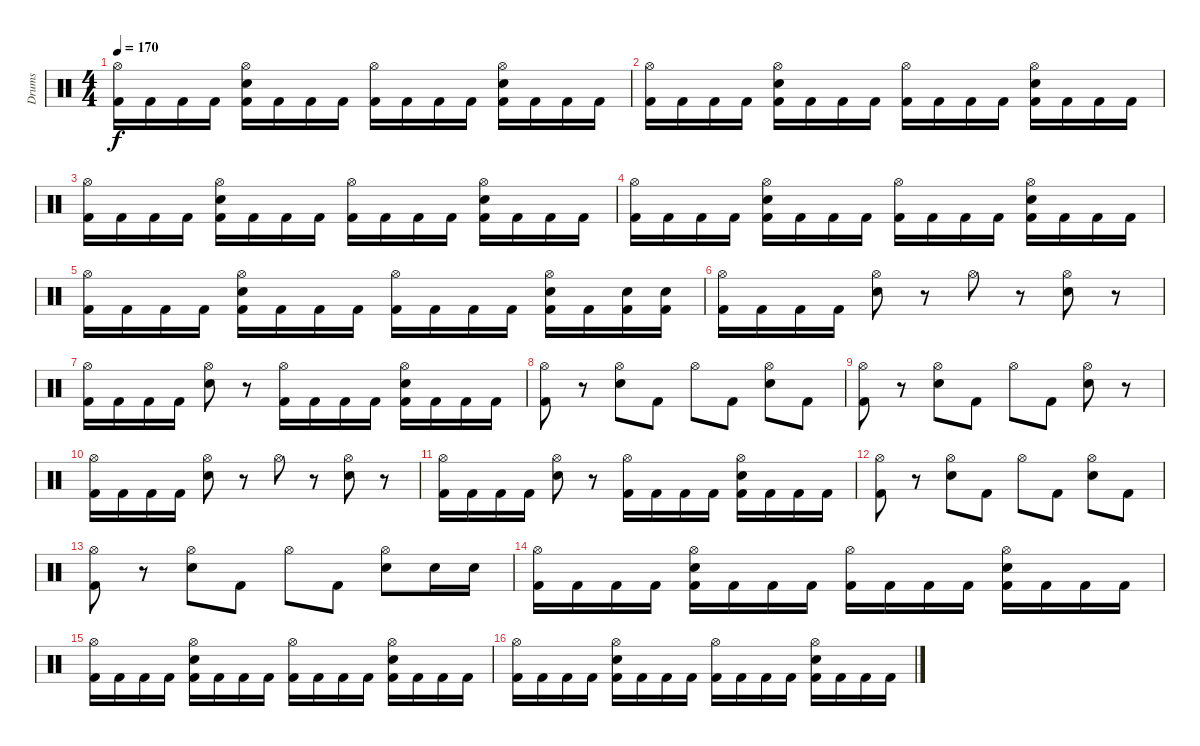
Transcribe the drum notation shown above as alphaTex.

\track ("Drums" "Drums") {instrument percussion}
\staff {score}
\articulation defaults
\ts (4 4)
\tempo 170
\clef neutral
\ks c
("Hi-Hat (open)" "Kick (hit) 2").16{dy f} "Kick (hit) 2".16 "Kick (hit) 2".16 "Kick (hit) 2".16 ("Hi-Hat (open)" "Electric Snare (hit)" "Kick (hit) 2").16 "Kick (hit) 2".16 "Kick (hit) 2".16 "Kick (hit) 2".16 ("Hi-Hat (open)" "Kick (hit) 2").16 "Kick (hit) 2".16 "Kick (hit) 2".16 "Kick (hit) 2".16 ("Hi-Hat (open)" "Electric Snare (hit)" "Kick (hit) 2").16 "Kick (hit) 2".16 "Kick (hit) 2".16 "Kick (hit) 2".16 |
("Hi-Hat (open)" "Kick (hit) 2").16 "Kick (hit) 2".16 "Kick (hit) 2".16 "Kick (hit) 2".16 ("Hi-Hat (open)" "Electric Snare (hit)" "Kick (hit) 2").16 "Kick (hit) 2".16 "Kick (hit) 2".16 "Kick (hit) 2".16 ("Hi-Hat (open)" "Kick (hit) 2").16 "Kick (hit) 2".16 "Kick (hit) 2".16 "Kick (hit) 2".16 ("Hi-Hat (open)" "Electric Snare (hit)" "Kick (hit) 2").16 "Kick (hit) 2".16 "Kick (hit) 2".16 "Kick (hit) 2".16 |
("Hi-Hat (open)" "Kick (hit) 2").16 "Kick (hit) 2".16 "Kick (hit) 2".16 "Kick (hit) 2".16 ("Hi-Hat (open)" "Electric Snare (hit)" "Kick (hit) 2").16 "Kick (hit) 2".16 "Kick (hit) 2".16 "Kick (hit) 2".16 ("Hi-Hat (open)" "Kick (hit) 2").16 "Kick (hit) 2".16 "Kick (hit) 2".16 "Kick (hit) 2".16 ("Hi-Hat (open)" "Electric Snare (hit)" "Kick (hit) 2").16 "Kick (hit) 2".16 "Kick (hit) 2".16 "Kick (hit) 2".16 |
("Hi-Hat (open)" "Kick (hit) 2").16 "Kick (hit) 2".16 "Kick (hit) 2".16 "Kick (hit) 2".16 ("Hi-Hat (open)" "Electric Snare (hit)" "Kick (hit) 2").16 "Kick (hit) 2".16 "Kick (hit) 2".16 "Kick (hit) 2".16 ("Hi-Hat (open)" "Kick (hit) 2").16 "Kick (hit) 2".16 "Kick (hit) 2".16 "Kick (hit) 2".16 ("Hi-Hat (open)" "Electric Snare (hit)" "Kick (hit) 2").16 "Kick (hit) 2".16 "Kick (hit) 2".16 "Kick (hit) 2".16 |
("Hi-Hat (open)" "Kick (hit) 2").16 "Kick (hit) 2".16 "Kick (hit) 2".16 "Kick (hit) 2".16 ("Hi-Hat (open)" "Electric Snare (hit)" "Kick (hit) 2").16 "Kick (hit) 2".16 "Kick (hit) 2".16 "Kick (hit) 2".16 ("Hi-Hat (open)" "Kick (hit) 2").16 "Kick (hit) 2".16 "Kick (hit) 2".16 "Kick (hit) 2".16 ("Hi-Hat (open)" "Electric Snare (hit)" "Kick (hit) 2").16 "Kick (hit) 2".16 ("Electric Snare (hit)" "Kick (hit) 2").16 ("Electric Snare (hit)" "Kick (hit) 2").16 |
("Hi-Hat (open)" "Kick (hit) 2").16 "Kick (hit) 2".16 "Kick (hit) 2".16 "Kick (hit) 2".16 ("Hi-Hat (open)" "Electric Snare (hit)").8 r.8 "Hi-Hat (open)".8 r.8 ("Hi-Hat (open)" "Electric Snare (hit)").8 r.8 |
("Hi-Hat (open)" "Kick (hit) 2").16 "Kick (hit) 2".16 "Kick (hit) 2".16 "Kick (hit) 2".16 ("Hi-Hat (open)" "Electric Snare (hit)").8 r.8 ("Hi-Hat (open)" "Kick (hit) 2").16 "Kick (hit) 2".16 "Kick (hit) 2".16 "Kick (hit) 2".16 ("Hi-Hat (open)" "Electric Snare (hit)" "Kick (hit) 2").16 "Kick (hit) 2".16 "Kick (hit) 2".16 "Kick (hit) 2".16 |
("Hi-Hat (open)" "Kick (hit) 2").8 r.8 ("Hi-Hat (open)" "Electric Snare (hit)").8 "Kick (hit) 2".8 "Hi-Hat (open)".8 "Kick (hit) 2".8 ("Hi-Hat (open)" "Electric Snare (hit)").8 "Kick (hit) 2".8 |
("Hi-Hat (open)" "Kick (hit) 2").8 r.8 ("Hi-Hat (open)" "Electric Snare (hit)").8 "Kick (hit) 2".8 "Hi-Hat (open)".8 "Kick (hit) 2".8 ("Hi-Hat (open)" "Electric Snare (hit)").8 r.8 |
("Hi-Hat (open)" "Kick (hit) 2").16 "Kick (hit) 2".16 "Kick (hit) 2".16 "Kick (hit) 2".16 ("Hi-Hat (open)" "Electric Snare (hit)").8 r.8 "Hi-Hat (open)".8 r.8 ("Hi-Hat (open)" "Electric Snare (hit)").8 r.8 |
("Hi-Hat (open)" "Kick (hit) 2").16 "Kick (hit) 2".16 "Kick (hit) 2".16 "Kick (hit) 2".16 ("Hi-Hat (open)" "Electric Snare (hit)").8 r.8 ("Hi-Hat (open)" "Kick (hit) 2").16 "Kick (hit) 2".16 "Kick (hit) 2".16 "Kick (hit) 2".16 ("Hi-Hat (open)" "Electric Snare (hit)" "Kick (hit) 2").16 "Kick (hit) 2".16 "Kick (hit) 2".16 "Kick (hit) 2".16 |
("Hi-Hat (open)" "Kick (hit) 2").8 r.8 ("Hi-Hat (open)" "Electric Snare (hit)").8 "Kick (hit) 2".8 "Hi-Hat (open)".8 "Kick (hit) 2".8 ("Hi-Hat (open)" "Electric Snare (hit)").8 "Kick (hit) 2".8 |
("Hi-Hat (open)" "Kick (hit) 2").8 r.8 ("Hi-Hat (open)" "Electric Snare (hit)").8 "Kick (hit) 2".8 "Hi-Hat (open)".8 "Kick (hit) 2".8 ("Hi-Hat (open)" "Electric Snare (hit)").8 "Electric Snare (hit)".16 "Electric Snare (hit)".16 |
("Hi-Hat (open)" "Kick (hit) 2").16 "Kick (hit) 2".16 "Kick (hit) 2".16 "Kick (hit) 2".16 ("Hi-Hat (open)" "Electric Snare (hit)" "Kick (hit) 2").16 "Kick (hit) 2".16 "Kick (hit) 2".16 "Kick (hit) 2".16 ("Hi-Hat (open)" "Kick (hit) 2").16 "Kick (hit) 2".16 "Kick (hit) 2".16 "Kick (hit) 2".16 ("Hi-Hat (open)" "Electric Snare (hit)" "Kick (hit) 2").16 "Kick (hit) 2".16 "Kick (hit) 2".16 "Kick (hit) 2".16 |
("Hi-Hat (open)" "Kick (hit) 2").16 "Kick (hit) 2".16 "Kick (hit) 2".16 "Kick (hit) 2".16 ("Hi-Hat (open)" "Electric Snare (hit)" "Kick (hit) 2").16 "Kick (hit) 2".16 "Kick (hit) 2".16 "Kick (hit) 2".16 ("Hi-Hat (open)" "Kick (hit) 2").16 "Kick (hit) 2".16 "Kick (hit) 2".16 "Kick (hit) 2".16 ("Hi-Hat (open)" "Electric Snare (hit)" "Kick (hit) 2").16 "Kick (hit) 2".16 "Kick (hit) 2".16 "Kick (hit) 2".16 |
("Hi-Hat (open)" "Kick (hit) 2").16 "Kick (hit) 2".16 "Kick (hit) 2".16 "Kick (hit) 2".16 ("Hi-Hat (open)" "Electric Snare (hit)" "Kick (hit) 2").16 "Kick (hit) 2".16 "Kick (hit) 2".16 "Kick (hit) 2".16 ("Hi-Hat (open)" "Kick (hit) 2").16 "Kick (hit) 2".16 "Kick (hit) 2".16 "Kick (hit) 2".16 ("Hi-Hat (open)" "Electric Snare (hit)" "Kick (hit) 2").16 "Kick (hit) 2".16 "Kick (hit) 2".16 "Kick (hit) 2".16
